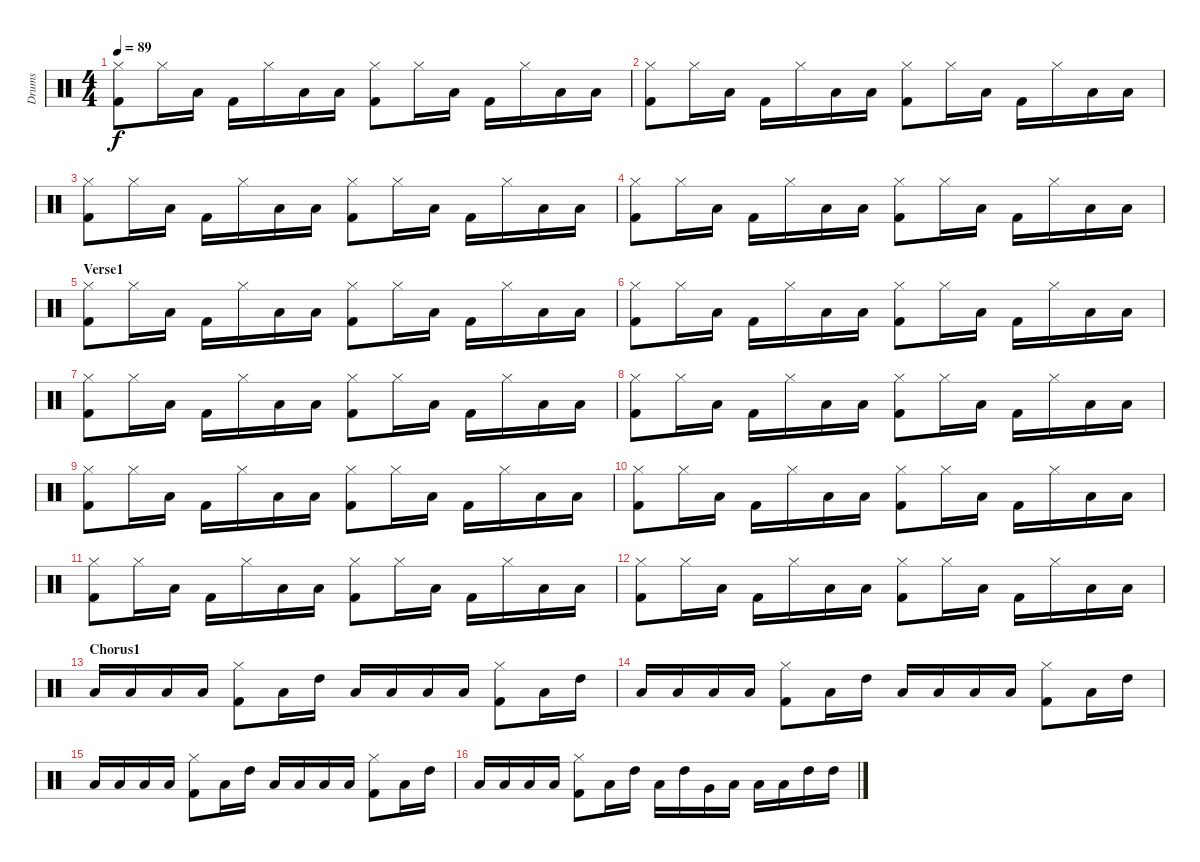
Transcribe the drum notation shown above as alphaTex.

\track ("Drums" "Drums") {instrument percussion}
\staff {score}
\articulation defaults
\ts (4 4)
\tempo 89
\clef neutral
\ks c
("Hi-Hat (closed)" "Kick (hit) 2").8{dy f} "Hi-Hat (closed)".16 "Low Tom (hit)".16 "Kick (hit) 2".16 "Hi-Hat (closed)".16 "Low Tom (hit)".16 "Low Tom (hit)".16 ("Hi-Hat (closed)" "Kick (hit) 2").8 "Hi-Hat (closed)".16 "Low Tom (hit)".16 "Kick (hit) 2".16 "Hi-Hat (closed)".16 "Low Tom (hit)".16 "Low Tom (hit)".16 |
("Hi-Hat (closed)" "Kick (hit) 2").8 "Hi-Hat (closed)".16 "Low Tom (hit)".16 "Kick (hit) 2".16 "Hi-Hat (closed)".16 "Low Tom (hit)".16 "Low Tom (hit)".16 ("Hi-Hat (closed)" "Kick (hit) 2").8 "Hi-Hat (closed)".16 "Low Tom (hit)".16 "Kick (hit) 2".16 "Hi-Hat (closed)".16 "Low Tom (hit)".16 "Low Tom (hit)".16 |
("Hi-Hat (closed)" "Kick (hit) 2").8 "Hi-Hat (closed)".16 "Low Tom (hit)".16 "Kick (hit) 2".16 "Hi-Hat (closed)".16 "Low Tom (hit)".16 "Low Tom (hit)".16 ("Hi-Hat (closed)" "Kick (hit) 2").8 "Hi-Hat (closed)".16 "Low Tom (hit)".16 "Kick (hit) 2".16 "Hi-Hat (closed)".16 "Low Tom (hit)".16 "Low Tom (hit)".16 |
("Hi-Hat (closed)" "Kick (hit) 2").8 "Hi-Hat (closed)".16 "Low Tom (hit)".16 "Kick (hit) 2".16 "Hi-Hat (closed)".16 "Low Tom (hit)".16 "Low Tom (hit)".16 ("Hi-Hat (closed)" "Kick (hit) 2").8 "Hi-Hat (closed)".16 "Low Tom (hit)".16 "Kick (hit) 2".16 "Hi-Hat (closed)".16 "Low Tom (hit)".16 "Low Tom (hit)".16 |
\section ("" "Verse1")
("Hi-Hat (closed)" "Kick (hit) 2").8 "Hi-Hat (closed)".16 "Low Tom (hit)".16 "Kick (hit) 2".16 "Hi-Hat (closed)".16 "Low Tom (hit)".16 "Low Tom (hit)".16 ("Hi-Hat (closed)" "Kick (hit) 2").8 "Hi-Hat (closed)".16 "Low Tom (hit)".16 "Kick (hit) 2".16 "Hi-Hat (closed)".16 "Low Tom (hit)".16 "Low Tom (hit)".16 |
("Hi-Hat (closed)" "Kick (hit) 2").8 "Hi-Hat (closed)".16 "Low Tom (hit)".16 "Kick (hit) 2".16 "Hi-Hat (closed)".16 "Low Tom (hit)".16 "Low Tom (hit)".16 ("Hi-Hat (closed)" "Kick (hit) 2").8 "Hi-Hat (closed)".16 "Low Tom (hit)".16 "Kick (hit) 2".16 "Hi-Hat (closed)".16 "Low Tom (hit)".16 "Low Tom (hit)".16 |
("Hi-Hat (closed)" "Kick (hit) 2").8 "Hi-Hat (closed)".16 "Low Tom (hit)".16 "Kick (hit) 2".16 "Hi-Hat (closed)".16 "Low Tom (hit)".16 "Low Tom (hit)".16 ("Hi-Hat (closed)" "Kick (hit) 2").8 "Hi-Hat (closed)".16 "Low Tom (hit)".16 "Kick (hit) 2".16 "Hi-Hat (closed)".16 "Low Tom (hit)".16 "Low Tom (hit)".16 |
("Hi-Hat (closed)" "Kick (hit) 2").8 "Hi-Hat (closed)".16 "Low Tom (hit)".16 "Kick (hit) 2".16 "Hi-Hat (closed)".16 "Low Tom (hit)".16 "Low Tom (hit)".16 ("Hi-Hat (closed)" "Kick (hit) 2").8 "Hi-Hat (closed)".16 "Low Tom (hit)".16 "Kick (hit) 2".16 "Hi-Hat (closed)".16 "Low Tom (hit)".16 "Low Tom (hit)".16 |
("Hi-Hat (closed)" "Kick (hit) 2").8 "Hi-Hat (closed)".16 "Low Tom (hit)".16 "Kick (hit) 2".16 "Hi-Hat (closed)".16 "Low Tom (hit)".16 "Low Tom (hit)".16 ("Hi-Hat (closed)" "Kick (hit) 2").8 "Hi-Hat (closed)".16 "Low Tom (hit)".16 "Kick (hit) 2".16 "Hi-Hat (closed)".16 "Low Tom (hit)".16 "Low Tom (hit)".16 |
("Hi-Hat (closed)" "Kick (hit) 2").8 "Hi-Hat (closed)".16 "Low Tom (hit)".16 "Kick (hit) 2".16 "Hi-Hat (closed)".16 "Low Tom (hit)".16 "Low Tom (hit)".16 ("Hi-Hat (closed)" "Kick (hit) 2").8 "Hi-Hat (closed)".16 "Low Tom (hit)".16 "Kick (hit) 2".16 "Hi-Hat (closed)".16 "Low Tom (hit)".16 "Low Tom (hit)".16 |
("Hi-Hat (closed)" "Kick (hit) 2").8 "Hi-Hat (closed)".16 "Low Tom (hit)".16 "Kick (hit) 2".16 "Hi-Hat (closed)".16 "Low Tom (hit)".16 "Low Tom (hit)".16 ("Hi-Hat (closed)" "Kick (hit) 2").8 "Hi-Hat (closed)".16 "Low Tom (hit)".16 "Kick (hit) 2".16 "Hi-Hat (closed)".16 "Low Tom (hit)".16 "Low Tom (hit)".16 |
("Hi-Hat (closed)" "Kick (hit) 2").8 "Hi-Hat (closed)".16 "Low Tom (hit)".16 "Kick (hit) 2".16 "Hi-Hat (closed)".16 "Low Tom (hit)".16 "Low Tom (hit)".16 ("Hi-Hat (closed)" "Kick (hit) 2").8 "Hi-Hat (closed)".16 "Low Tom (hit)".16 "Kick (hit) 2".16 "Hi-Hat (closed)".16 "Low Tom (hit)".16 "Low Tom (hit)".16 |
\section ("" "Chorus1")
"Low Tom (hit)".16 "Low Tom (hit)".16 "Low Tom (hit)".16 "Low Tom (hit)".16 ("Hi-Hat (closed)" "Kick (hit) 2").8 "Low Tom (hit)".16 "High Tom (hit)".16 "Low Tom (hit)".16 "Low Tom (hit)".16 "Low Tom (hit)".16 "Low Tom (hit)".16 ("Hi-Hat (closed)" "Kick (hit) 2").8 "Low Tom (hit)".16 "High Tom (hit)".16 |
"Low Tom (hit)".16 "Low Tom (hit)".16 "Low Tom (hit)".16 "Low Tom (hit)".16 ("Hi-Hat (closed)" "Kick (hit) 2").8 "Low Tom (hit)".16 "High Tom (hit)".16 "Low Tom (hit)".16 "Low Tom (hit)".16 "Low Tom (hit)".16 "Low Tom (hit)".16 ("Hi-Hat (closed)" "Kick (hit) 2").8 "Low Tom (hit)".16 "High Tom (hit)".16 |
"Low Tom (hit)".16 "Low Tom (hit)".16 "Low Tom (hit)".16 "Low Tom (hit)".16 ("Hi-Hat (closed)" "Kick (hit) 2").8 "Low Tom (hit)".16 "High Tom (hit)".16 "Low Tom (hit)".16 "Low Tom (hit)".16 "Low Tom (hit)".16 "Low Tom (hit)".16 ("Hi-Hat (closed)" "Kick (hit) 2").8 "Low Tom (hit)".16 "High Tom (hit)".16 |
"Low Tom (hit)".16 "Low Tom (hit)".16 "Low Tom (hit)".16 "Low Tom (hit)".16 ("Hi-Hat (closed)" "Kick (hit) 2").8 "Low Tom (hit)".16 "High Tom (hit)".16 "Low Tom (hit)".16 "High Tom (hit)".16 "Very Low Tom (hit)".16 "Low Floor Tom (hit)".16 "Low Tom (hit)".16 "Low Tom (hit)".16 "High Tom (hit)".16 "High Tom (hit)".16
